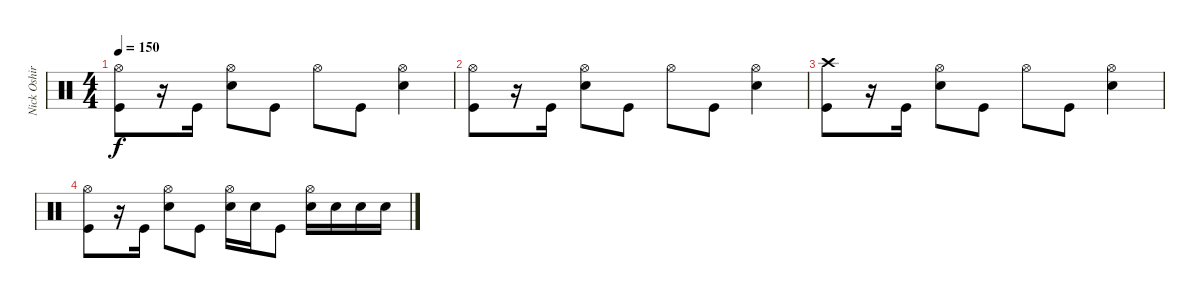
\track ("Nick Oshiro" "Nick Oshir") {instrument percussion}
\staff {score}
\articulation defaults
\ts (4 4)
\tempo 150
\clef neutral
\ks c
("Hi-Hat (open)" "Kick (hit)").8{dy f} r.16 "Kick (hit)".16 ("Hi-Hat (open)" "Snare (hit) 2").8 "Kick (hit)".8 "Hi-Hat (open)".8 "Kick (hit)".8 ("Hi-Hat (open)" "Snare (hit) 2").4 |
("Hi-Hat (open)" "Kick (hit)").8 r.16 "Kick (hit)".16 ("Hi-Hat (open)" "Snare (hit) 2").8 "Kick (hit)".8 "Hi-Hat (open)".8 "Kick (hit)".8 ("Hi-Hat (open)" "Snare (hit) 2").4 |
("Crash high (hit)" "Kick (hit)").8 r.16 "Kick (hit)".16 ("Hi-Hat (open)" "Snare (hit) 2").8 "Kick (hit)".8 "Hi-Hat (open)".8 "Kick (hit)".8 ("Hi-Hat (open)" "Snare (hit) 2").4 |
("Hi-Hat (open)" "Kick (hit)").8 r.16 "Kick (hit)".16 ("Hi-Hat (open)" "Snare (hit) 2").8 "Kick (hit)".8 ("Hi-Hat (open)" "Snare (hit) 2").16 "Snare (hit) 2".16 "Kick (hit)".8 ("Hi-Hat (open)" "Snare (hit) 2").16 "Snare (hit) 2".16 "Snare (hit) 2".16 "Snare (hit) 2".16
